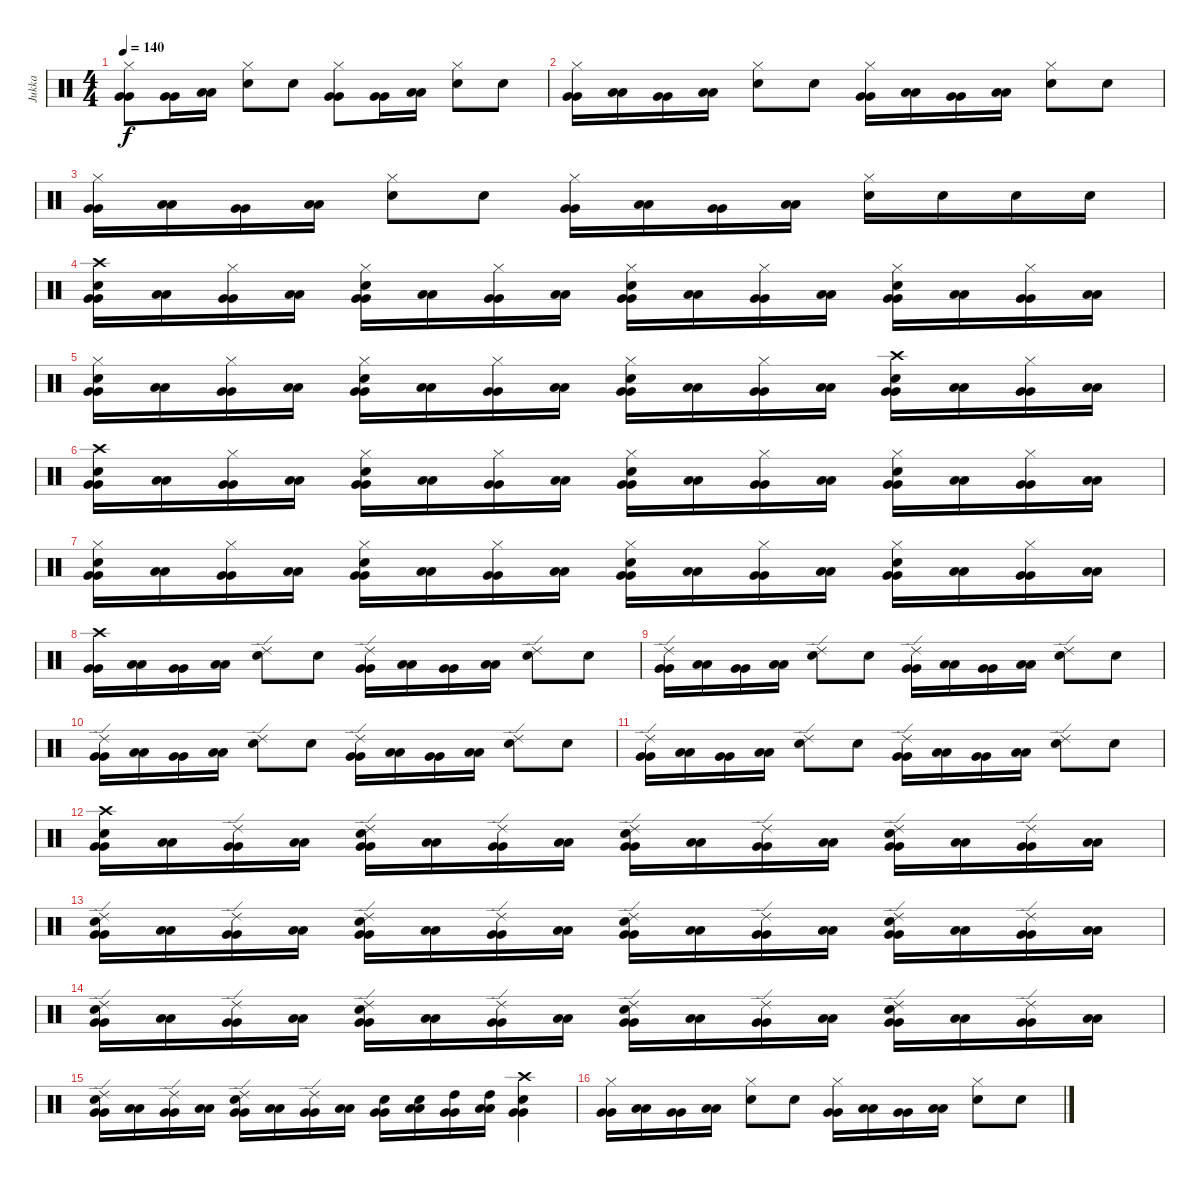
\track ("Jukka" "Jukka") {instrument percussion}
\staff {score}
\articulation defaults
\ts (4 4)
\tempo 140
\clef neutral
\ks c
("Hi-Hat (closed)" "Very Low Tom (hit)" "Very Low Tom (hit)").8{dy f} ("Very Low Tom (hit)" "Very Low Tom (hit)").16 ("Low Floor Tom (hit)" "Low Floor Tom (hit)").16 ("Hi-Hat (closed)" "Electric Snare (hit)").8 "Electric Snare (hit)".8 ("Hi-Hat (closed)" "Very Low Tom (hit)" "Very Low Tom (hit)").8 ("Very Low Tom (hit)" "Very Low Tom (hit)").16 ("Low Floor Tom (hit)" "Low Floor Tom (hit)").16 ("Hi-Hat (closed)" "Electric Snare (hit)").8 "Electric Snare (hit)".8 |
("Hi-Hat (closed)" "Very Low Tom (hit)" "Very Low Tom (hit)").16 ("Low Floor Tom (hit)" "Low Floor Tom (hit)").16 ("Very Low Tom (hit)" "Very Low Tom (hit)").16 ("Low Floor Tom (hit)" "Low Floor Tom (hit)").16 ("Hi-Hat (closed)" "Electric Snare (hit)").8 "Electric Snare (hit)".8 ("Hi-Hat (closed)" "Very Low Tom (hit)" "Very Low Tom (hit)").16 ("Low Floor Tom (hit)" "Low Floor Tom (hit)").16 ("Very Low Tom (hit)" "Very Low Tom (hit)").16 ("Low Floor Tom (hit)" "Low Floor Tom (hit)").16 ("Hi-Hat (closed)" "Electric Snare (hit)").8 "Electric Snare (hit)".8 |
("Hi-Hat (closed)" "Very Low Tom (hit)" "Very Low Tom (hit)").16 ("Low Floor Tom (hit)" "Low Floor Tom (hit)").16 ("Very Low Tom (hit)" "Very Low Tom (hit)").16 ("Low Floor Tom (hit)" "Low Floor Tom (hit)").16 ("Hi-Hat (closed)" "Electric Snare (hit)").8 "Electric Snare (hit)".8 ("Hi-Hat (closed)" "Very Low Tom (hit)" "Very Low Tom (hit)").16 ("Low Floor Tom (hit)" "Low Floor Tom (hit)").16 ("Very Low Tom (hit)" "Very Low Tom (hit)").16 ("Low Floor Tom (hit)" "Low Floor Tom (hit)").16 ("Hi-Hat (closed)" "Electric Snare (hit)").16 "Electric Snare (hit)".16 "Electric Snare (hit)".16 "Electric Snare (hit)".16 |
("Crash high (hit)" "Electric Snare (hit)" "Very Low Tom (hit)" "Very Low Tom (hit)").16 ("Low Floor Tom (hit)" "Low Floor Tom (hit)").16 ("Hi-Hat (closed)" "Very Low Tom (hit)" "Very Low Tom (hit)").16 ("Low Floor Tom (hit)" "Low Floor Tom (hit)").16 ("Hi-Hat (closed)" "Electric Snare (hit)" "Very Low Tom (hit)" "Very Low Tom (hit)").16 ("Low Floor Tom (hit)" "Low Floor Tom (hit)").16 ("Hi-Hat (closed)" "Very Low Tom (hit)" "Very Low Tom (hit)").16 ("Low Floor Tom (hit)" "Low Floor Tom (hit)").16 ("Hi-Hat (closed)" "Electric Snare (hit)" "Very Low Tom (hit)" "Very Low Tom (hit)").16 ("Low Floor Tom (hit)" "Low Floor Tom (hit)").16 ("Hi-Hat (closed)" "Very Low Tom (hit)" "Very Low Tom (hit)").16 ("Low Floor Tom (hit)" "Low Floor Tom (hit)").16 ("Hi-Hat (closed)" "Electric Snare (hit)" "Very Low Tom (hit)" "Very Low Tom (hit)").16 ("Low Floor Tom (hit)" "Low Floor Tom (hit)").16 ("Hi-Hat (closed)" "Very Low Tom (hit)" "Very Low Tom (hit)").16 ("Low Floor Tom (hit)" "Low Floor Tom (hit)").16 |
("Hi-Hat (closed)" "Electric Snare (hit)" "Very Low Tom (hit)" "Very Low Tom (hit)").16 ("Low Floor Tom (hit)" "Low Floor Tom (hit)").16 ("Hi-Hat (closed)" "Very Low Tom (hit)" "Very Low Tom (hit)").16 ("Low Floor Tom (hit)" "Low Floor Tom (hit)").16 ("Hi-Hat (closed)" "Electric Snare (hit)" "Very Low Tom (hit)" "Very Low Tom (hit)").16 ("Low Floor Tom (hit)" "Low Floor Tom (hit)").16 ("Hi-Hat (closed)" "Very Low Tom (hit)" "Very Low Tom (hit)").16 ("Low Floor Tom (hit)" "Low Floor Tom (hit)").16 ("Hi-Hat (closed)" "Electric Snare (hit)" "Very Low Tom (hit)" "Very Low Tom (hit)").16 ("Low Floor Tom (hit)" "Low Floor Tom (hit)").16 ("Hi-Hat (closed)" "Very Low Tom (hit)" "Very Low Tom (hit)").16 ("Low Floor Tom (hit)" "Low Floor Tom (hit)").16 ("Crash high (hit)" "Electric Snare (hit)" "Very Low Tom (hit)" "Very Low Tom (hit)").16 ("Low Floor Tom (hit)" "Low Floor Tom (hit)").16 ("Hi-Hat (closed)" "Very Low Tom (hit)" "Very Low Tom (hit)").16 ("Low Floor Tom (hit)" "Low Floor Tom (hit)").16 |
("Crash high (hit)" "Electric Snare (hit)" "Very Low Tom (hit)" "Very Low Tom (hit)").16 ("Low Floor Tom (hit)" "Low Floor Tom (hit)").16 ("Hi-Hat (closed)" "Very Low Tom (hit)" "Very Low Tom (hit)").16 ("Low Floor Tom (hit)" "Low Floor Tom (hit)").16 ("Hi-Hat (closed)" "Electric Snare (hit)" "Very Low Tom (hit)" "Very Low Tom (hit)").16 ("Low Floor Tom (hit)" "Low Floor Tom (hit)").16 ("Hi-Hat (closed)" "Very Low Tom (hit)" "Very Low Tom (hit)").16 ("Low Floor Tom (hit)" "Low Floor Tom (hit)").16 ("Hi-Hat (closed)" "Electric Snare (hit)" "Very Low Tom (hit)" "Very Low Tom (hit)").16 ("Low Floor Tom (hit)" "Low Floor Tom (hit)").16 ("Hi-Hat (closed)" "Very Low Tom (hit)" "Very Low Tom (hit)").16 ("Low Floor Tom (hit)" "Low Floor Tom (hit)").16 ("Hi-Hat (closed)" "Electric Snare (hit)" "Very Low Tom (hit)" "Very Low Tom (hit)").16 ("Low Floor Tom (hit)" "Low Floor Tom (hit)").16 ("Hi-Hat (closed)" "Very Low Tom (hit)" "Very Low Tom (hit)").16 ("Low Floor Tom (hit)" "Low Floor Tom (hit)").16 |
("Hi-Hat (closed)" "Electric Snare (hit)" "Very Low Tom (hit)" "Very Low Tom (hit)").16 ("Low Floor Tom (hit)" "Low Floor Tom (hit)").16 ("Hi-Hat (closed)" "Very Low Tom (hit)" "Very Low Tom (hit)").16 ("Low Floor Tom (hit)" "Low Floor Tom (hit)").16 ("Hi-Hat (closed)" "Electric Snare (hit)" "Very Low Tom (hit)" "Very Low Tom (hit)").16 ("Low Floor Tom (hit)" "Low Floor Tom (hit)").16 ("Hi-Hat (closed)" "Very Low Tom (hit)" "Very Low Tom (hit)").16 ("Low Floor Tom (hit)" "Low Floor Tom (hit)").16 ("Hi-Hat (closed)" "Electric Snare (hit)" "Very Low Tom (hit)" "Very Low Tom (hit)").16 ("Low Floor Tom (hit)" "Low Floor Tom (hit)").16 ("Hi-Hat (closed)" "Very Low Tom (hit)" "Very Low Tom (hit)").16 ("Low Floor Tom (hit)" "Low Floor Tom (hit)").16 ("Hi-Hat (closed)" "Electric Snare (hit)" "Very Low Tom (hit)" "Very Low Tom (hit)").16 ("Low Floor Tom (hit)" "Low Floor Tom (hit)").16 ("Hi-Hat (closed)" "Very Low Tom (hit)" "Very Low Tom (hit)").16 ("Low Floor Tom (hit)" "Low Floor Tom (hit)").16 |
("Crash high (hit)" "Very Low Tom (hit)" "Very Low Tom (hit)").16 ("Low Floor Tom (hit)" "Low Floor Tom (hit)").16 ("Very Low Tom (hit)" "Very Low Tom (hit)").16 ("Low Floor Tom (hit)" "Low Floor Tom (hit)").16 ("Ride (edge) 2" "Electric Snare (hit)").8 "Electric Snare (hit)".8 ("Ride (edge) 2" "Very Low Tom (hit)" "Very Low Tom (hit)").16 ("Low Floor Tom (hit)" "Low Floor Tom (hit)").16 ("Very Low Tom (hit)" "Very Low Tom (hit)").16 ("Low Floor Tom (hit)" "Low Floor Tom (hit)").16 ("Ride (edge) 2" "Electric Snare (hit)").8 "Electric Snare (hit)".8 |
("Ride (edge) 2" "Very Low Tom (hit)" "Very Low Tom (hit)").16 ("Low Floor Tom (hit)" "Low Floor Tom (hit)").16 ("Very Low Tom (hit)" "Very Low Tom (hit)").16 ("Low Floor Tom (hit)" "Low Floor Tom (hit)").16 ("Ride (edge) 2" "Electric Snare (hit)").8 "Electric Snare (hit)".8 ("Ride (edge) 2" "Very Low Tom (hit)" "Very Low Tom (hit)").16 ("Low Floor Tom (hit)" "Low Floor Tom (hit)").16 ("Very Low Tom (hit)" "Very Low Tom (hit)").16 ("Low Floor Tom (hit)" "Low Floor Tom (hit)").16 ("Ride (edge) 2" "Electric Snare (hit)").8 "Electric Snare (hit)".8 |
("Ride (edge) 2" "Very Low Tom (hit)" "Very Low Tom (hit)").16 ("Low Floor Tom (hit)" "Low Floor Tom (hit)").16 ("Very Low Tom (hit)" "Very Low Tom (hit)").16 ("Low Floor Tom (hit)" "Low Floor Tom (hit)").16 ("Ride (edge) 2" "Electric Snare (hit)").8 "Electric Snare (hit)".8 ("Ride (edge) 2" "Very Low Tom (hit)" "Very Low Tom (hit)").16 ("Low Floor Tom (hit)" "Low Floor Tom (hit)").16 ("Very Low Tom (hit)" "Very Low Tom (hit)").16 ("Low Floor Tom (hit)" "Low Floor Tom (hit)").16 ("Ride (edge) 2" "Electric Snare (hit)").8 "Electric Snare (hit)".8 |
("Ride (edge) 2" "Very Low Tom (hit)" "Very Low Tom (hit)").16 ("Low Floor Tom (hit)" "Low Floor Tom (hit)").16 ("Very Low Tom (hit)" "Very Low Tom (hit)").16 ("Low Floor Tom (hit)" "Low Floor Tom (hit)").16 ("Ride (edge) 2" "Electric Snare (hit)").8 "Electric Snare (hit)".8 ("Ride (edge) 2" "Very Low Tom (hit)" "Very Low Tom (hit)").16 ("Low Floor Tom (hit)" "Low Floor Tom (hit)").16 ("Very Low Tom (hit)" "Very Low Tom (hit)").16 ("Low Floor Tom (hit)" "Low Floor Tom (hit)").16 ("Ride (edge) 2" "Electric Snare (hit)").8 "Electric Snare (hit)".8 |
("Crash high (hit)" "Electric Snare (hit)" "Very Low Tom (hit)" "Very Low Tom (hit)").16 ("Low Floor Tom (hit)" "Low Floor Tom (hit)").16 ("Ride (edge) 2" "Very Low Tom (hit)" "Very Low Tom (hit)").16 ("Low Floor Tom (hit)" "Low Floor Tom (hit)").16 ("Ride (edge) 2" "Electric Snare (hit)" "Very Low Tom (hit)" "Very Low Tom (hit)").16 ("Low Floor Tom (hit)" "Low Floor Tom (hit)").16 ("Ride (edge) 2" "Very Low Tom (hit)" "Very Low Tom (hit)").16 ("Low Floor Tom (hit)" "Low Floor Tom (hit)").16 ("Ride (edge) 2" "Electric Snare (hit)" "Very Low Tom (hit)" "Very Low Tom (hit)").16 ("Low Floor Tom (hit)" "Low Floor Tom (hit)").16 ("Ride (edge) 2" "Very Low Tom (hit)" "Very Low Tom (hit)").16 ("Low Floor Tom (hit)" "Low Floor Tom (hit)").16 ("Ride (edge) 2" "Electric Snare (hit)" "Very Low Tom (hit)" "Very Low Tom (hit)").16 ("Low Floor Tom (hit)" "Low Floor Tom (hit)").16 ("Ride (edge) 2" "Very Low Tom (hit)" "Very Low Tom (hit)").16 ("Low Floor Tom (hit)" "Low Floor Tom (hit)").16 |
("Ride (edge) 2" "Electric Snare (hit)" "Very Low Tom (hit)" "Very Low Tom (hit)").16 ("Low Floor Tom (hit)" "Low Floor Tom (hit)").16 ("Ride (edge) 2" "Very Low Tom (hit)" "Very Low Tom (hit)").16 ("Low Floor Tom (hit)" "Low Floor Tom (hit)").16 ("Ride (edge) 2" "Electric Snare (hit)" "Very Low Tom (hit)" "Very Low Tom (hit)").16 ("Low Floor Tom (hit)" "Low Floor Tom (hit)").16 ("Ride (edge) 2" "Very Low Tom (hit)" "Very Low Tom (hit)").16 ("Low Floor Tom (hit)" "Low Floor Tom (hit)").16 ("Ride (edge) 2" "Electric Snare (hit)" "Very Low Tom (hit)" "Very Low Tom (hit)").16 ("Low Floor Tom (hit)" "Low Floor Tom (hit)").16 ("Ride (edge) 2" "Very Low Tom (hit)" "Very Low Tom (hit)").16 ("Low Floor Tom (hit)" "Low Floor Tom (hit)").16 ("Ride (edge) 2" "Electric Snare (hit)" "Very Low Tom (hit)" "Very Low Tom (hit)").16 ("Low Floor Tom (hit)" "Low Floor Tom (hit)").16 ("Ride (edge) 2" "Very Low Tom (hit)" "Very Low Tom (hit)").16 ("Low Floor Tom (hit)" "Low Floor Tom (hit)").16 |
("Ride (edge) 2" "Electric Snare (hit)" "Very Low Tom (hit)" "Very Low Tom (hit)").16 ("Low Floor Tom (hit)" "Low Floor Tom (hit)").16 ("Ride (edge) 2" "Very Low Tom (hit)" "Very Low Tom (hit)").16 ("Low Floor Tom (hit)" "Low Floor Tom (hit)").16 ("Ride (edge) 2" "Electric Snare (hit)" "Very Low Tom (hit)" "Very Low Tom (hit)").16 ("Low Floor Tom (hit)" "Low Floor Tom (hit)").16 ("Ride (edge) 2" "Very Low Tom (hit)" "Very Low Tom (hit)").16 ("Low Floor Tom (hit)" "Low Floor Tom (hit)").16 ("Ride (edge) 2" "Electric Snare (hit)" "Very Low Tom (hit)" "Very Low Tom (hit)").16 ("Low Floor Tom (hit)" "Low Floor Tom (hit)").16 ("Ride (edge) 2" "Very Low Tom (hit)" "Very Low Tom (hit)").16 ("Low Floor Tom (hit)" "Low Floor Tom (hit)").16 ("Ride (edge) 2" "Electric Snare (hit)" "Very Low Tom (hit)" "Very Low Tom (hit)").16 ("Low Floor Tom (hit)" "Low Floor Tom (hit)").16 ("Ride (edge) 2" "Very Low Tom (hit)" "Very Low Tom (hit)").16 ("Low Floor Tom (hit)" "Low Floor Tom (hit)").16 |
("Ride (edge) 2" "Electric Snare (hit)" "Very Low Tom (hit)" "Very Low Tom (hit)").16 ("Low Floor Tom (hit)" "Low Floor Tom (hit)").16 ("Ride (edge) 2" "Very Low Tom (hit)" "Very Low Tom (hit)").16 ("Low Floor Tom (hit)" "Low Floor Tom (hit)").16 ("Ride (edge) 2" "Electric Snare (hit)" "Very Low Tom (hit)" "Very Low Tom (hit)").16 ("Low Floor Tom (hit)" "Low Floor Tom (hit)").16 ("Ride (edge) 2" "Very Low Tom (hit)" "Very Low Tom (hit)").16 ("Low Floor Tom (hit)" "Low Floor Tom (hit)").16 ("Electric Snare (hit)" "Very Low Tom (hit)" "Very Low Tom (hit)").16 ("Electric Snare (hit)" "Low Floor Tom (hit)" "Low Floor Tom (hit)").16 ("High Tom (hit)" "Very Low Tom (hit)" "Very Low Tom (hit)").16 ("High Tom (hit)" "Low Floor Tom (hit)" "Low Floor Tom (hit)").16 ("Crash high (hit)" "Electric Snare (hit)" "Very Low Tom (hit)" "Very Low Tom (hit)").4 |
("Hi-Hat (closed)" "Very Low Tom (hit)" "Very Low Tom (hit)").16 ("Low Floor Tom (hit)" "Low Floor Tom (hit)").16 ("Very Low Tom (hit)" "Very Low Tom (hit)").16 ("Low Floor Tom (hit)" "Low Floor Tom (hit)").16 ("Hi-Hat (closed)" "Electric Snare (hit)").8 "Electric Snare (hit)".8 ("Hi-Hat (closed)" "Very Low Tom (hit)" "Very Low Tom (hit)").16 ("Low Floor Tom (hit)" "Low Floor Tom (hit)").16 ("Very Low Tom (hit)" "Very Low Tom (hit)").16 ("Low Floor Tom (hit)" "Low Floor Tom (hit)").16 ("Hi-Hat (closed)" "Electric Snare (hit)").8 "Electric Snare (hit)".8
